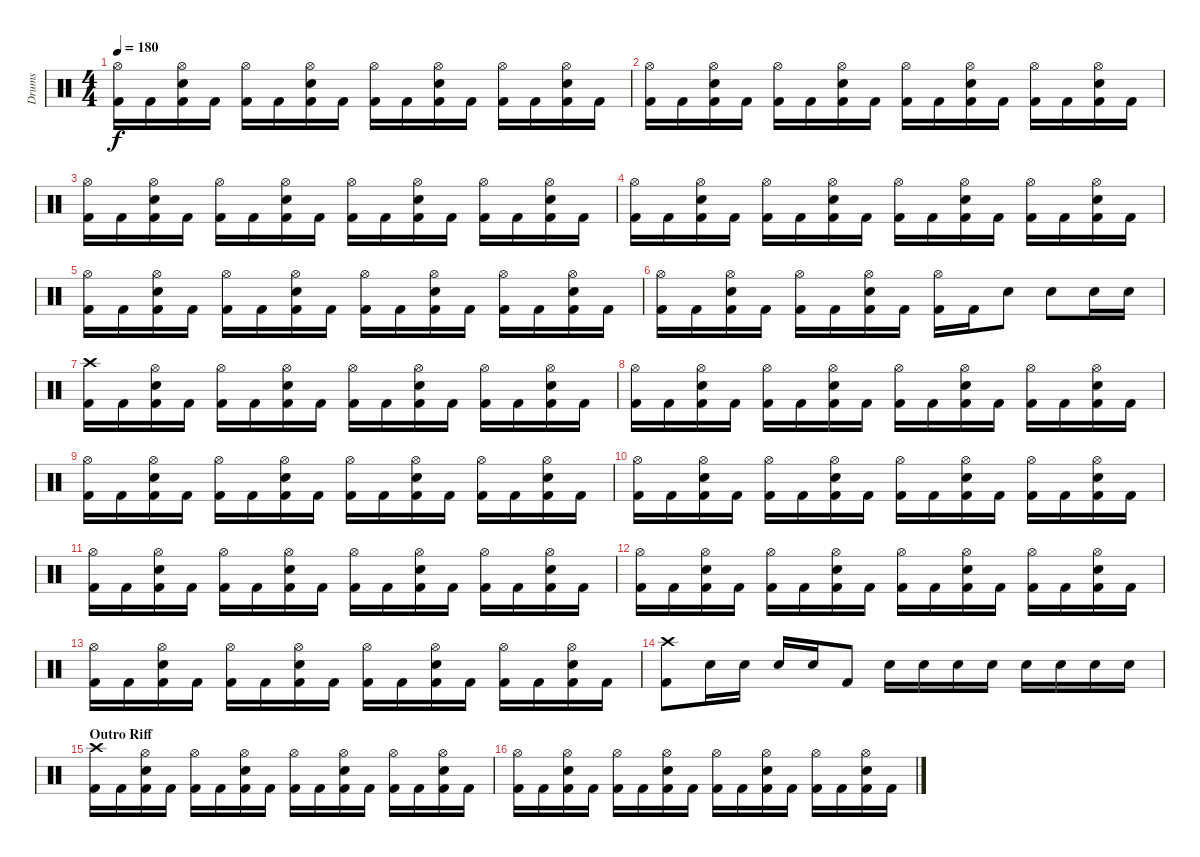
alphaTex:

\track ("Drums" "Drums") {instrument percussion}
\staff {score}
\articulation defaults
\ts (4 4)
\tempo 180
\clef neutral
\ks c
("Hi-Hat (open)" "Kick (hit) 2").16{dy f} "Kick (hit) 2".16 ("Hi-Hat (open)" "Snare (hit) 2" "Kick (hit) 2").16 "Kick (hit) 2".16 ("Hi-Hat (open)" "Kick (hit) 2").16 "Kick (hit) 2".16 ("Hi-Hat (open)" "Snare (hit) 2" "Kick (hit) 2").16 "Kick (hit) 2".16 ("Hi-Hat (open)" "Kick (hit) 2").16 "Kick (hit) 2".16 ("Hi-Hat (open)" "Snare (hit) 2" "Kick (hit) 2").16 "Kick (hit) 2".16 ("Hi-Hat (open)" "Kick (hit) 2").16 "Kick (hit) 2".16 ("Hi-Hat (open)" "Snare (hit) 2" "Kick (hit) 2").16 "Kick (hit) 2".16 |
("Hi-Hat (open)" "Kick (hit) 2").16 "Kick (hit) 2".16 ("Hi-Hat (open)" "Snare (hit) 2" "Kick (hit) 2").16 "Kick (hit) 2".16 ("Hi-Hat (open)" "Kick (hit) 2").16 "Kick (hit) 2".16 ("Hi-Hat (open)" "Snare (hit) 2" "Kick (hit) 2").16 "Kick (hit) 2".16 ("Hi-Hat (open)" "Kick (hit) 2").16 "Kick (hit) 2".16 ("Hi-Hat (open)" "Snare (hit) 2" "Kick (hit) 2").16 "Kick (hit) 2".16 ("Hi-Hat (open)" "Kick (hit) 2").16 "Kick (hit) 2".16 ("Hi-Hat (open)" "Snare (hit) 2" "Kick (hit) 2").16 "Kick (hit) 2".16 |
("Hi-Hat (open)" "Kick (hit) 2").16 "Kick (hit) 2".16 ("Hi-Hat (open)" "Snare (hit) 2" "Kick (hit) 2").16 "Kick (hit) 2".16 ("Hi-Hat (open)" "Kick (hit) 2").16 "Kick (hit) 2".16 ("Hi-Hat (open)" "Snare (hit) 2" "Kick (hit) 2").16 "Kick (hit) 2".16 ("Hi-Hat (open)" "Kick (hit) 2").16 "Kick (hit) 2".16 ("Hi-Hat (open)" "Snare (hit) 2" "Kick (hit) 2").16 "Kick (hit) 2".16 ("Hi-Hat (open)" "Kick (hit) 2").16 "Kick (hit) 2".16 ("Hi-Hat (open)" "Snare (hit) 2" "Kick (hit) 2").16 "Kick (hit) 2".16 |
("Hi-Hat (open)" "Kick (hit) 2").16 "Kick (hit) 2".16 ("Hi-Hat (open)" "Snare (hit) 2" "Kick (hit) 2").16 "Kick (hit) 2".16 ("Hi-Hat (open)" "Kick (hit) 2").16 "Kick (hit) 2".16 ("Hi-Hat (open)" "Snare (hit) 2" "Kick (hit) 2").16 "Kick (hit) 2".16 ("Hi-Hat (open)" "Kick (hit) 2").16 "Kick (hit) 2".16 ("Hi-Hat (open)" "Snare (hit) 2" "Kick (hit) 2").16 "Kick (hit) 2".16 ("Hi-Hat (open)" "Kick (hit) 2").16 "Kick (hit) 2".16 ("Hi-Hat (open)" "Snare (hit) 2" "Kick (hit) 2").16 "Kick (hit) 2".16 |
("Hi-Hat (open)" "Kick (hit) 2").16 "Kick (hit) 2".16 ("Hi-Hat (open)" "Snare (hit) 2" "Kick (hit) 2").16 "Kick (hit) 2".16 ("Hi-Hat (open)" "Kick (hit) 2").16 "Kick (hit) 2".16 ("Hi-Hat (open)" "Snare (hit) 2" "Kick (hit) 2").16 "Kick (hit) 2".16 ("Hi-Hat (open)" "Kick (hit) 2").16 "Kick (hit) 2".16 ("Hi-Hat (open)" "Snare (hit) 2" "Kick (hit) 2").16 "Kick (hit) 2".16 ("Hi-Hat (open)" "Kick (hit) 2").16 "Kick (hit) 2".16 ("Hi-Hat (open)" "Snare (hit) 2" "Kick (hit) 2").16 "Kick (hit) 2".16 |
("Hi-Hat (open)" "Kick (hit) 2").16 "Kick (hit) 2".16 ("Hi-Hat (open)" "Snare (hit) 2" "Kick (hit) 2").16 "Kick (hit) 2".16 ("Hi-Hat (open)" "Kick (hit) 2").16 "Kick (hit) 2".16 ("Hi-Hat (open)" "Snare (hit) 2" "Kick (hit) 2").16 "Kick (hit) 2".16 ("Hi-Hat (open)" "Kick (hit) 2").16 "Kick (hit) 2".16 "Snare (hit) 2".8 "Snare (hit) 2".8 "Snare (hit) 2".16 "Snare (hit) 2".16 |
("Crash high (hit)" "Kick (hit) 2").16 "Kick (hit) 2".16 ("Hi-Hat (open)" "Snare (hit) 2" "Kick (hit) 2").16 "Kick (hit) 2".16 ("Hi-Hat (open)" "Kick (hit) 2").16 "Kick (hit) 2".16 ("Hi-Hat (open)" "Snare (hit) 2" "Kick (hit) 2").16 "Kick (hit) 2".16 ("Hi-Hat (open)" "Kick (hit) 2").16 "Kick (hit) 2".16 ("Hi-Hat (open)" "Snare (hit) 2" "Kick (hit) 2").16 "Kick (hit) 2".16 ("Hi-Hat (open)" "Kick (hit) 2").16 "Kick (hit) 2".16 ("Hi-Hat (open)" "Snare (hit) 2" "Kick (hit) 2").16 "Kick (hit) 2".16 |
("Hi-Hat (open)" "Kick (hit) 2").16 "Kick (hit) 2".16 ("Hi-Hat (open)" "Snare (hit) 2" "Kick (hit) 2").16 "Kick (hit) 2".16 ("Hi-Hat (open)" "Kick (hit) 2").16 "Kick (hit) 2".16 ("Hi-Hat (open)" "Snare (hit) 2" "Kick (hit) 2").16 "Kick (hit) 2".16 ("Hi-Hat (open)" "Kick (hit) 2").16 "Kick (hit) 2".16 ("Hi-Hat (open)" "Snare (hit) 2" "Kick (hit) 2").16 "Kick (hit) 2".16 ("Hi-Hat (open)" "Kick (hit) 2").16 "Kick (hit) 2".16 ("Hi-Hat (open)" "Snare (hit) 2" "Kick (hit) 2").16 "Kick (hit) 2".16 |
("Hi-Hat (open)" "Kick (hit) 2").16 "Kick (hit) 2".16 ("Hi-Hat (open)" "Snare (hit) 2" "Kick (hit) 2").16 "Kick (hit) 2".16 ("Hi-Hat (open)" "Kick (hit) 2").16 "Kick (hit) 2".16 ("Hi-Hat (open)" "Snare (hit) 2" "Kick (hit) 2").16 "Kick (hit) 2".16 ("Hi-Hat (open)" "Kick (hit) 2").16 "Kick (hit) 2".16 ("Hi-Hat (open)" "Snare (hit) 2" "Kick (hit) 2").16 "Kick (hit) 2".16 ("Hi-Hat (open)" "Kick (hit) 2").16 "Kick (hit) 2".16 ("Hi-Hat (open)" "Snare (hit) 2" "Kick (hit) 2").16 "Kick (hit) 2".16 |
("Hi-Hat (open)" "Kick (hit) 2").16 "Kick (hit) 2".16 ("Hi-Hat (open)" "Snare (hit) 2" "Kick (hit) 2").16 "Kick (hit) 2".16 ("Hi-Hat (open)" "Kick (hit) 2").16 "Kick (hit) 2".16 ("Hi-Hat (open)" "Snare (hit) 2" "Kick (hit) 2").16 "Kick (hit) 2".16 ("Hi-Hat (open)" "Kick (hit) 2").16 "Kick (hit) 2".16 ("Hi-Hat (open)" "Snare (hit) 2" "Kick (hit) 2").16 "Kick (hit) 2".16 ("Hi-Hat (open)" "Kick (hit) 2").16 "Kick (hit) 2".16 ("Hi-Hat (open)" "Snare (hit) 2" "Kick (hit) 2").16 "Kick (hit) 2".16 |
("Hi-Hat (open)" "Kick (hit) 2").16 "Kick (hit) 2".16 ("Hi-Hat (open)" "Snare (hit) 2" "Kick (hit) 2").16 "Kick (hit) 2".16 ("Hi-Hat (open)" "Kick (hit) 2").16 "Kick (hit) 2".16 ("Hi-Hat (open)" "Snare (hit) 2" "Kick (hit) 2").16 "Kick (hit) 2".16 ("Hi-Hat (open)" "Kick (hit) 2").16 "Kick (hit) 2".16 ("Hi-Hat (open)" "Snare (hit) 2" "Kick (hit) 2").16 "Kick (hit) 2".16 ("Hi-Hat (open)" "Kick (hit) 2").16 "Kick (hit) 2".16 ("Hi-Hat (open)" "Snare (hit) 2" "Kick (hit) 2").16 "Kick (hit) 2".16 |
("Hi-Hat (open)" "Kick (hit) 2").16 "Kick (hit) 2".16 ("Hi-Hat (open)" "Snare (hit) 2" "Kick (hit) 2").16 "Kick (hit) 2".16 ("Hi-Hat (open)" "Kick (hit) 2").16 "Kick (hit) 2".16 ("Hi-Hat (open)" "Snare (hit) 2" "Kick (hit) 2").16 "Kick (hit) 2".16 ("Hi-Hat (open)" "Kick (hit) 2").16 "Kick (hit) 2".16 ("Hi-Hat (open)" "Snare (hit) 2" "Kick (hit) 2").16 "Kick (hit) 2".16 ("Hi-Hat (open)" "Kick (hit) 2").16 "Kick (hit) 2".16 ("Hi-Hat (open)" "Snare (hit) 2" "Kick (hit) 2").16 "Kick (hit) 2".16 |
("Hi-Hat (open)" "Kick (hit) 2").16 "Kick (hit) 2".16 ("Hi-Hat (open)" "Snare (hit) 2" "Kick (hit) 2").16 "Kick (hit) 2".16 ("Hi-Hat (open)" "Kick (hit) 2").16 "Kick (hit) 2".16 ("Hi-Hat (open)" "Snare (hit) 2" "Kick (hit) 2").16 "Kick (hit) 2".16 ("Hi-Hat (open)" "Kick (hit) 2").16 "Kick (hit) 2".16 ("Hi-Hat (open)" "Snare (hit) 2" "Kick (hit) 2").16 "Kick (hit) 2".16 ("Hi-Hat (open)" "Kick (hit) 2").16 "Kick (hit) 2".16 ("Hi-Hat (open)" "Snare (hit) 2" "Kick (hit) 2").16 "Kick (hit) 2".16 |
("Crash high (hit)" "Kick (hit) 2").8 "Snare (hit) 2".16 "Snare (hit) 2".16 "Snare (hit) 2".16 "Snare (hit) 2".16 "Kick (hit) 2".8 "Snare (hit) 2".16 "Snare (hit) 2".16 "Snare (hit) 2".16 "Snare (hit) 2".16 "Snare (hit) 2".16 "Snare (hit) 2".16 "Snare (hit) 2".16 "Snare (hit) 2".16 |
\section ("" "Outro Riff")
("Crash high (hit)" "Kick (hit) 2").16 "Kick (hit) 2".16 ("Hi-Hat (open)" "Snare (hit) 2" "Kick (hit) 2").16 "Kick (hit) 2".16 ("Hi-Hat (open)" "Kick (hit) 2").16 "Kick (hit) 2".16 ("Hi-Hat (open)" "Snare (hit) 2" "Kick (hit) 2").16 "Kick (hit) 2".16 ("Hi-Hat (open)" "Kick (hit) 2").16 "Kick (hit) 2".16 ("Hi-Hat (open)" "Snare (hit) 2" "Kick (hit) 2").16 "Kick (hit) 2".16 ("Hi-Hat (open)" "Kick (hit) 2").16 "Kick (hit) 2".16 ("Hi-Hat (open)" "Snare (hit) 2" "Kick (hit) 2").16 "Kick (hit) 2".16 |
("Hi-Hat (open)" "Kick (hit) 2").16 "Kick (hit) 2".16 ("Hi-Hat (open)" "Snare (hit) 2" "Kick (hit) 2").16 "Kick (hit) 2".16 ("Hi-Hat (open)" "Kick (hit) 2").16 "Kick (hit) 2".16 ("Hi-Hat (open)" "Snare (hit) 2" "Kick (hit) 2").16 "Kick (hit) 2".16 ("Hi-Hat (open)" "Kick (hit) 2").16 "Kick (hit) 2".16 ("Hi-Hat (open)" "Snare (hit) 2" "Kick (hit) 2").16 "Kick (hit) 2".16 ("Hi-Hat (open)" "Kick (hit) 2").16 "Kick (hit) 2".16 ("Hi-Hat (open)" "Snare (hit) 2" "Kick (hit) 2").16 "Kick (hit) 2".16
